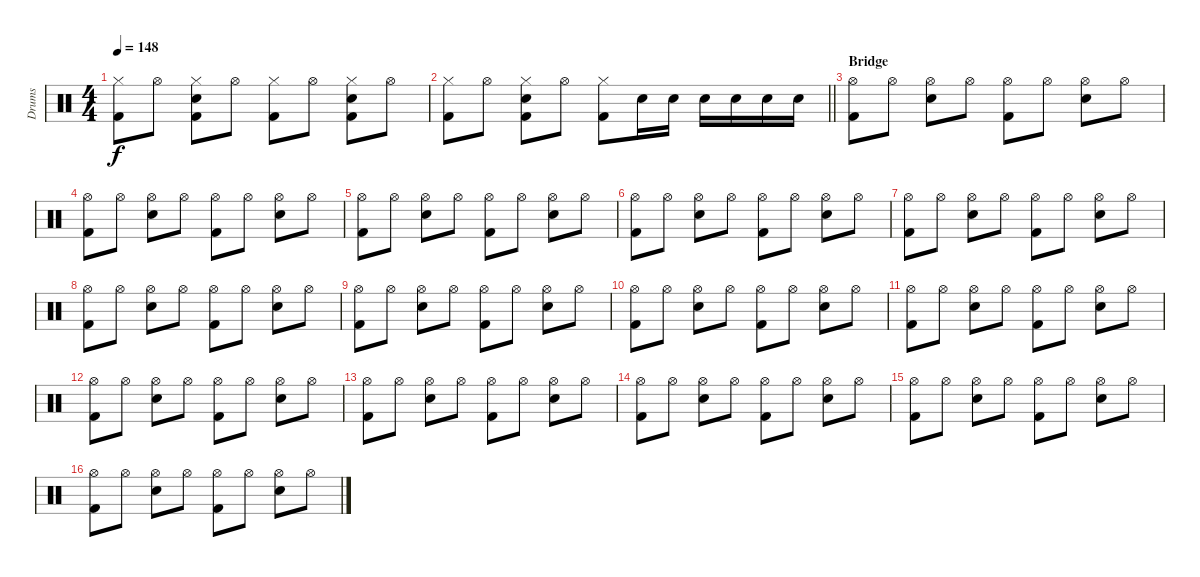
\track ("Drums" "Drums") {instrument percussion}
\staff {score}
\articulation defaults
\ts (4 4)
\tempo 148
\clef neutral
\ks c
("Hi-Hat (closed)" "Kick (hit) 2").8{dy f} "Hi-Hat (open)".8 ("Hi-Hat (closed)" "Electric Snare (hit)" "Kick (hit) 2").8 "Hi-Hat (open)".8 ("Hi-Hat (closed)" "Kick (hit) 2").8 "Hi-Hat (open)".8 ("Hi-Hat (closed)" "Electric Snare (hit)" "Kick (hit) 2").8 "Hi-Hat (open)".8 |
\barLineRight lightlight
("Hi-Hat (closed)" "Kick (hit) 2").8 "Hi-Hat (open)".8 ("Hi-Hat (closed)" "Electric Snare (hit)" "Kick (hit) 2").8 "Hi-Hat (open)".8 ("Hi-Hat (closed)" "Kick (hit) 2").8 "Electric Snare (hit)".16 "Electric Snare (hit)".16 "Electric Snare (hit)".16 "Electric Snare (hit)".16 "Electric Snare (hit)".16 "Electric Snare (hit)".16 |
\section ("" "Bridge")
("Hi-Hat (open)" "Kick (hit) 2").8 "Hi-Hat (open)".8 ("Hi-Hat (open)" "Electric Snare (hit)").8 "Hi-Hat (open)".8 ("Hi-Hat (open)" "Kick (hit) 2").8 "Hi-Hat (open)".8 ("Hi-Hat (open)" "Electric Snare (hit)").8 "Hi-Hat (open)".8 |
("Hi-Hat (open)" "Kick (hit) 2").8 "Hi-Hat (open)".8 ("Hi-Hat (open)" "Electric Snare (hit)").8 "Hi-Hat (open)".8 ("Hi-Hat (open)" "Kick (hit) 2").8 "Hi-Hat (open)".8 ("Hi-Hat (open)" "Electric Snare (hit)").8 "Hi-Hat (open)".8 |
("Hi-Hat (open)" "Kick (hit) 2").8 "Hi-Hat (open)".8 ("Hi-Hat (open)" "Electric Snare (hit)").8 "Hi-Hat (open)".8 ("Hi-Hat (open)" "Kick (hit) 2").8 "Hi-Hat (open)".8 ("Hi-Hat (open)" "Electric Snare (hit)").8 "Hi-Hat (open)".8 |
("Hi-Hat (open)" "Kick (hit) 2").8 "Hi-Hat (open)".8 ("Hi-Hat (open)" "Electric Snare (hit)").8 "Hi-Hat (open)".8 ("Hi-Hat (open)" "Kick (hit) 2").8 "Hi-Hat (open)".8 ("Hi-Hat (open)" "Electric Snare (hit)").8 "Hi-Hat (open)".8 |
("Hi-Hat (open)" "Kick (hit) 2").8 "Hi-Hat (open)".8 ("Hi-Hat (open)" "Electric Snare (hit)").8 "Hi-Hat (open)".8 ("Hi-Hat (open)" "Kick (hit) 2").8 "Hi-Hat (open)".8 ("Hi-Hat (open)" "Electric Snare (hit)").8 "Hi-Hat (open)".8 |
("Hi-Hat (open)" "Kick (hit) 2").8 "Hi-Hat (open)".8 ("Hi-Hat (open)" "Electric Snare (hit)").8 "Hi-Hat (open)".8 ("Hi-Hat (open)" "Kick (hit) 2").8 "Hi-Hat (open)".8 ("Hi-Hat (open)" "Electric Snare (hit)").8 "Hi-Hat (open)".8 |
("Hi-Hat (open)" "Kick (hit) 2").8 "Hi-Hat (open)".8 ("Hi-Hat (open)" "Electric Snare (hit)").8 "Hi-Hat (open)".8 ("Hi-Hat (open)" "Kick (hit) 2").8 "Hi-Hat (open)".8 ("Hi-Hat (open)" "Electric Snare (hit)").8 "Hi-Hat (open)".8 |
("Hi-Hat (open)" "Kick (hit) 2").8 "Hi-Hat (open)".8 ("Hi-Hat (open)" "Electric Snare (hit)").8 "Hi-Hat (open)".8 ("Hi-Hat (open)" "Kick (hit) 2").8 "Hi-Hat (open)".8 ("Hi-Hat (open)" "Electric Snare (hit)").8 "Hi-Hat (open)".8 |
("Hi-Hat (open)" "Kick (hit) 2").8 "Hi-Hat (open)".8 ("Hi-Hat (open)" "Electric Snare (hit)").8 "Hi-Hat (open)".8 ("Hi-Hat (open)" "Kick (hit) 2").8 "Hi-Hat (open)".8 ("Hi-Hat (open)" "Electric Snare (hit)").8 "Hi-Hat (open)".8 |
("Hi-Hat (open)" "Kick (hit) 2").8 "Hi-Hat (open)".8 ("Hi-Hat (open)" "Electric Snare (hit)").8 "Hi-Hat (open)".8 ("Hi-Hat (open)" "Kick (hit) 2").8 "Hi-Hat (open)".8 ("Hi-Hat (open)" "Electric Snare (hit)").8 "Hi-Hat (open)".8 |
("Hi-Hat (open)" "Kick (hit) 2").8 "Hi-Hat (open)".8 ("Hi-Hat (open)" "Electric Snare (hit)").8 "Hi-Hat (open)".8 ("Hi-Hat (open)" "Kick (hit) 2").8 "Hi-Hat (open)".8 ("Hi-Hat (open)" "Electric Snare (hit)").8 "Hi-Hat (open)".8 |
("Hi-Hat (open)" "Kick (hit) 2").8 "Hi-Hat (open)".8 ("Hi-Hat (open)" "Electric Snare (hit)").8 "Hi-Hat (open)".8 ("Hi-Hat (open)" "Kick (hit) 2").8 "Hi-Hat (open)".8 ("Hi-Hat (open)" "Electric Snare (hit)").8 "Hi-Hat (open)".8 |
("Hi-Hat (open)" "Kick (hit) 2").8 "Hi-Hat (open)".8 ("Hi-Hat (open)" "Electric Snare (hit)").8 "Hi-Hat (open)".8 ("Hi-Hat (open)" "Kick (hit) 2").8 "Hi-Hat (open)".8 ("Hi-Hat (open)" "Electric Snare (hit)").8 "Hi-Hat (open)".8 |
("Hi-Hat (open)" "Kick (hit) 2").8 "Hi-Hat (open)".8 ("Hi-Hat (open)" "Electric Snare (hit)").8 "Hi-Hat (open)".8 ("Hi-Hat (open)" "Kick (hit) 2").8 "Hi-Hat (open)".8 ("Hi-Hat (open)" "Electric Snare (hit)").8 "Hi-Hat (open)".8
